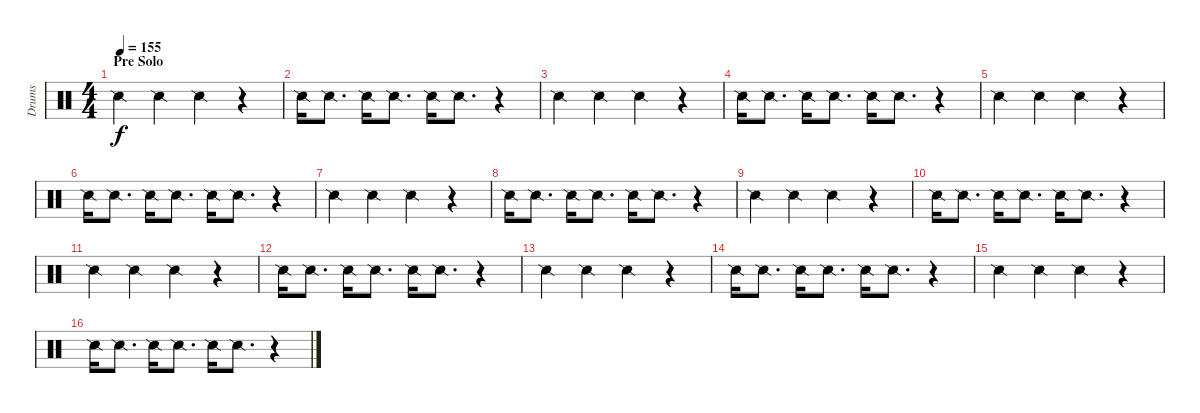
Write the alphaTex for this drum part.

\track ("Drums" "Drums") {instrument percussion}
\staff {score}
\articulation defaults
\ts (4 4)
\section ("" "Pre Solo")
\tempo 155
\clef neutral
\ks c "Snare (side stick) 2".4{dy f} "Snare (side stick) 2".4 "Snare (side stick) 2".4
r.4 |
"Snare (side stick) 2".16 "Snare (side stick) 2".8{d} "Snare (side stick) 2".16 "Snare (side stick) 2".8{d} "Snare (side stick) 2".16 "Snare (side stick) 2".8{d} r.4 |
"Snare (side stick) 2".4 "Snare (side stick) 2".4 "Snare (side stick) 2".4 r.4 |
"Snare (side stick) 2".16 "Snare (side stick) 2".8{d} "Snare (side stick) 2".16 "Snare (side stick) 2".8{d} "Snare (side stick) 2".16 "Snare (side stick) 2".8{d} r.4 |
"Snare (side stick) 2".4 "Snare (side stick) 2".4 "Snare (side stick) 2".4 r.4 |
"Snare (side stick) 2".16 "Snare (side stick) 2".8{d} "Snare (side stick) 2".16 "Snare (side stick) 2".8{d} "Snare (side stick) 2".16 "Snare (side stick) 2".8{d} r.4 |
"Snare (side stick) 2".4 "Snare (side stick) 2".4 "Snare (side stick) 2".4 r.4 |
"Snare (side stick) 2".16 "Snare (side stick) 2".8{d} "Snare (side stick) 2".16 "Snare (side stick) 2".8{d} "Snare (side stick) 2".16 "Snare (side stick) 2".8{d} r.4 |
"Snare (side stick) 2".4 "Snare (side stick) 2".4 "Snare (side stick) 2".4 r.4 |
"Snare (side stick) 2".16 "Snare (side stick) 2".8{d} "Snare (side stick) 2".16 "Snare (side stick) 2".8{d} "Snare (side stick) 2".16 "Snare (side stick) 2".8{d} r.4 |
"Snare (side stick) 2".4 "Snare (side stick) 2".4 "Snare (side stick) 2".4 r.4 |
"Snare (side stick) 2".16 "Snare (side stick) 2".8{d} "Snare (side stick) 2".16 "Snare (side stick) 2".8{d} "Snare (side stick) 2".16 "Snare (side stick) 2".8{d} r.4 |
"Snare (side stick) 2".4 "Snare (side stick) 2".4 "Snare (side stick) 2".4 r.4 |
"Snare (side stick) 2".16 "Snare (side stick) 2".8{d} "Snare (side stick) 2".16 "Snare (side stick) 2".8{d} "Snare (side stick) 2".16 "Snare (side stick) 2".8{d} r.4 |
"Snare (side stick) 2".4 "Snare (side stick) 2".4 "Snare (side stick) 2".4 r.4 |
"Snare (side stick) 2".16 "Snare (side stick) 2".8{d} "Snare (side stick) 2".16 "Snare (side stick) 2".8{d} "Snare (side stick) 2".16 "Snare (side stick) 2".8{d} r.4
